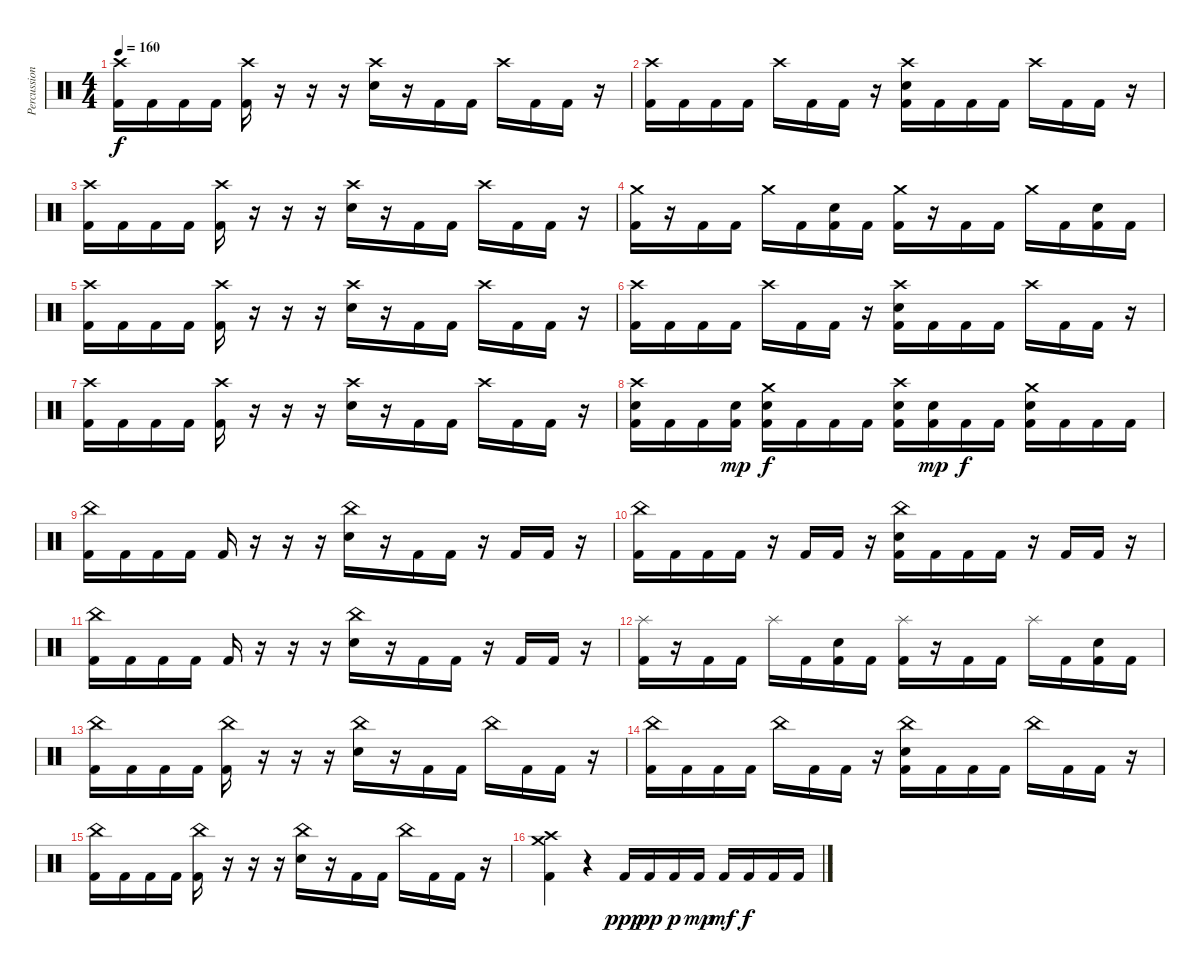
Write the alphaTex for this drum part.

\track ("Percussion" "Percussion") {instrument percussion}
\staff {score}
\articulation defaults
\ts (4 4)
\tempo 160
\clef neutral
\ks c
("Crash high (hit)" "Kick (hit) 2").16{dy f} "Kick (hit) 2".16 "Kick (hit) 2".16 "Kick (hit) 2".16 ("Crash high (hit)" "Kick (hit) 2").16 r.16 r.16 r.16 ("Crash high (hit)" "Snare (hit) 2").16 r.16 "Kick (hit) 2".16 "Kick (hit) 2".16 "Crash high (hit)".16 "Kick (hit) 2".16 "Kick (hit) 2".16 r.16 |
("Crash high (hit)" "Kick (hit) 2").16 "Kick (hit) 2".16 "Kick (hit) 2".16 "Kick (hit) 2".16 "Crash high (hit)".16 "Kick (hit) 2".16 "Kick (hit) 2".16 r.16 ("Crash high (hit)" "Snare (hit) 2" "Kick (hit) 2").16 "Kick (hit) 2".16 "Kick (hit) 2".16 "Kick (hit) 2".16 "Crash high (hit)".16 "Kick (hit) 2".16 "Kick (hit) 2".16 r.16 |
("Crash high (hit)" "Kick (hit) 2").16 "Kick (hit) 2".16 "Kick (hit) 2".16 "Kick (hit) 2".16 ("Crash high (hit)" "Kick (hit) 2").16 r.16 r.16 r.16 ("Crash high (hit)" "Snare (hit) 2").16 r.16 "Kick (hit) 2".16 "Kick (hit) 2".16 "Crash high (hit)".16 "Kick (hit) 2".16 "Kick (hit) 2".16 r.16 |
("Crash medium (hit)" "Kick (hit) 2").16 r.16 "Kick (hit) 2".16 "Kick (hit) 2".16 "Crash medium (hit)".16 "Kick (hit) 2".16 ("Snare (hit) 2" "Kick (hit) 2").16 "Kick (hit) 2".16 ("Crash medium (hit)" "Kick (hit) 2").16 r.16 "Kick (hit) 2".16 "Kick (hit) 2".16 "Crash medium (hit)".16 "Kick (hit) 2".16 ("Snare (hit) 2" "Kick (hit) 2").16 "Kick (hit) 2".16 |
("Crash high (hit)" "Kick (hit) 2").16 "Kick (hit) 2".16 "Kick (hit) 2".16 "Kick (hit) 2".16 ("Crash high (hit)" "Kick (hit) 2").16 r.16 r.16 r.16 ("Crash high (hit)" "Snare (hit) 2").16 r.16 "Kick (hit) 2".16 "Kick (hit) 2".16 "Crash high (hit)".16 "Kick (hit) 2".16 "Kick (hit) 2".16 r.16 |
("Crash high (hit)" "Kick (hit) 2").16 "Kick (hit) 2".16 "Kick (hit) 2".16 "Kick (hit) 2".16 "Crash high (hit)".16 "Kick (hit) 2".16 "Kick (hit) 2".16 r.16 ("Crash high (hit)" "Snare (hit) 2" "Kick (hit) 2").16 "Kick (hit) 2".16 "Kick (hit) 2".16 "Kick (hit) 2".16 "Crash high (hit)".16 "Kick (hit) 2".16 "Kick (hit) 2".16 r.16 |
("Crash high (hit)" "Kick (hit) 2").16 "Kick (hit) 2".16 "Kick (hit) 2".16 "Kick (hit) 2".16 ("Crash high (hit)" "Kick (hit) 2").16 r.16 r.16 r.16 ("Crash high (hit)" "Snare (hit) 2").16 r.16 "Kick (hit) 2".16 "Kick (hit) 2".16 "Crash high (hit)".16 "Kick (hit) 2".16 "Kick (hit) 2".16 r.16 |
("Crash high (hit)" "Snare (hit) 2" "Kick (hit) 2").16 "Kick (hit) 2".16 "Kick (hit) 2".16 ("Snare (hit) 2" "Kick (hit) 2").16{dy mp} ("Crash medium (hit)" "Snare (hit) 2" "Kick (hit) 2").16{dy f} "Kick (hit) 2".16 "Kick (hit) 2".16 "Kick (hit) 2".16 ("Crash high (hit)" "Snare (hit) 2" "Kick (hit) 2").16 ("Snare (hit) 2" "Kick (hit) 2").16{dy mp} "Kick (hit) 2".16{dy f} "Kick (hit) 2".16 ("Crash medium (hit)" "Snare (hit) 2" "Kick (hit) 2").16 "Kick (hit) 2".16 "Kick (hit) 2".16 "Kick (hit) 2".16 |
("China (hit)" "Kick (hit) 2").16 "Kick (hit) 2".16 "Kick (hit) 2".16 "Kick (hit) 2".16 "Kick (hit) 2".16 r.16 r.16 r.16 ("China (hit)" "Snare (hit) 2").16 r.16 "Kick (hit) 2".16 "Kick (hit) 2".16 r.16 "Kick (hit) 2".16 "Kick (hit) 2".16 r.16 |
("China (hit)" "Kick (hit) 2").16 "Kick (hit) 2".16 "Kick (hit) 2".16 "Kick (hit) 2".16 r.16 "Kick (hit) 2".16 "Kick (hit) 2".16 r.16 ("China (hit)" "Snare (hit) 2" "Kick (hit) 2").16 "Kick (hit) 2".16 "Kick (hit) 2".16 "Kick (hit) 2".16 r.16 "Kick (hit) 2".16 "Kick (hit) 2".16 r.16 |
("China (hit)" "Kick (hit) 2").16 "Kick (hit) 2".16 "Kick (hit) 2".16 "Kick (hit) 2".16 "Kick (hit) 2".16 r.16 r.16 r.16 ("China (hit)" "Snare (hit) 2").16 r.16 "Kick (hit) 2".16 "Kick (hit) 2".16 r.16 "Kick (hit) 2".16 "Kick (hit) 2".16 r.16 |
("Splash (hit)" "Kick (hit) 2").16 r.16 "Kick (hit) 2".16 "Kick (hit) 2".16 "Splash (hit)".16 "Kick (hit) 2".16 ("Snare (hit) 2" "Kick (hit) 2").16 "Kick (hit) 2".16 ("Splash (hit)" "Kick (hit) 2").16 r.16 "Kick (hit) 2".16 "Kick (hit) 2".16 "Splash (hit)".16 "Kick (hit) 2".16 ("Snare (hit) 2" "Kick (hit) 2").16 "Kick (hit) 2".16 |
("China (hit)" "Kick (hit) 2").16 "Kick (hit) 2".16 "Kick (hit) 2".16 "Kick (hit) 2".16 ("China (hit)" "Kick (hit) 2").16 r.16 r.16 r.16 ("China (hit)" "Snare (hit) 2").16 r.16 "Kick (hit) 2".16 "Kick (hit) 2".16 "China (hit)".16 "Kick (hit) 2".16 "Kick (hit) 2".16 r.16 |
("China (hit)" "Kick (hit) 2").16 "Kick (hit) 2".16 "Kick (hit) 2".16 "Kick (hit) 2".16 "China (hit)".16 "Kick (hit) 2".16 "Kick (hit) 2".16 r.16 ("China (hit)" "Snare (hit) 2" "Kick (hit) 2").16 "Kick (hit) 2".16 "Kick (hit) 2".16 "Kick (hit) 2".16 "China (hit)".16 "Kick (hit) 2".16 "Kick (hit) 2".16 r.16 |
("China (hit)" "Kick (hit) 2").16 "Kick (hit) 2".16 "Kick (hit) 2".16 "Kick (hit) 2".16 ("China (hit)" "Kick (hit) 2").16 r.16 r.16 r.16 ("China (hit)" "Snare (hit) 2").16 r.16 "Kick (hit) 2".16 "Kick (hit) 2".16 "China (hit)".16 "Kick (hit) 2".16 "Kick (hit) 2".16 r.16 |
("Crash high (hit)" "Crash medium (hit)" "Kick (hit) 2").4 r.4 "Kick (hit) 2".16{dy ppp} "Kick (hit) 2".16{dy pp} "Kick (hit) 2".16{dy p} "Kick (hit) 2".16{dy mp} "Kick (hit) 2".16{dy mf} "Kick (hit) 2".16{dy f} "Kick (hit) 2".16 "Kick (hit) 2".16
